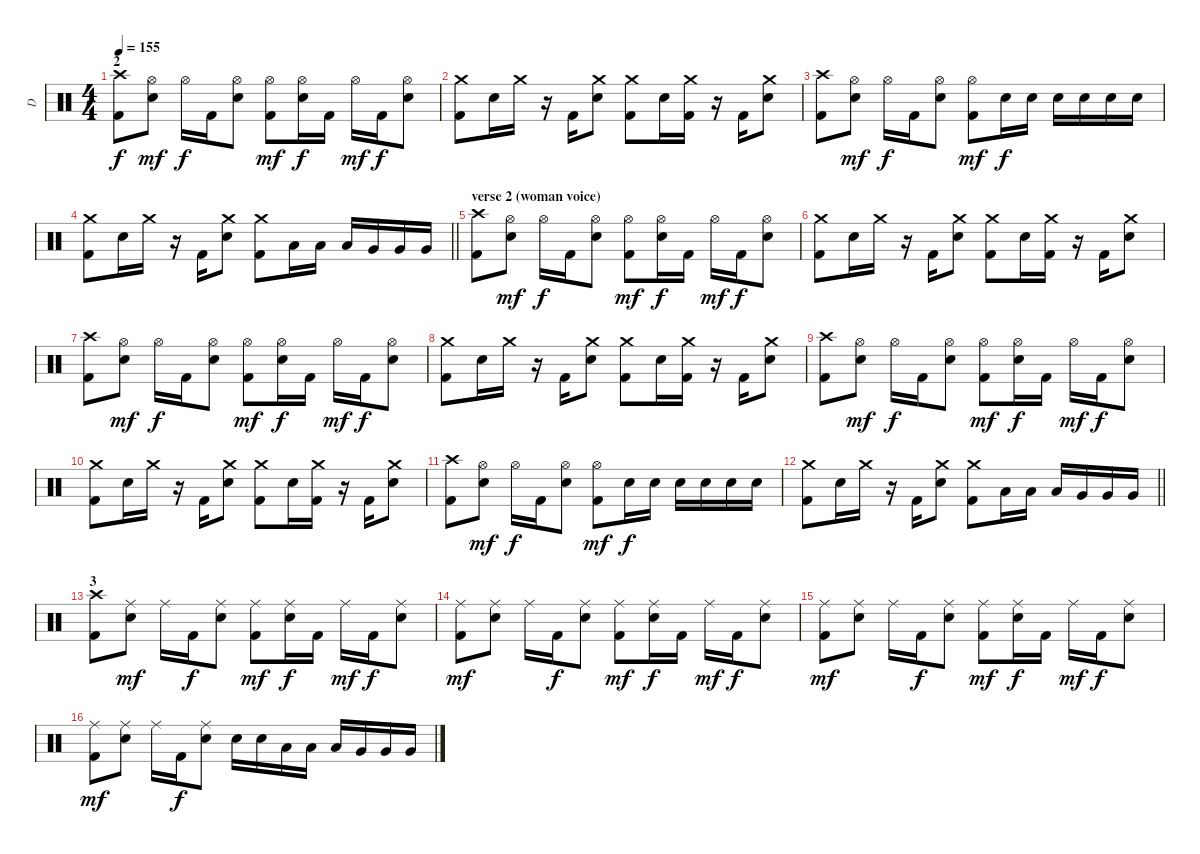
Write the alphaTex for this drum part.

\track ("D" "D") {instrument percussion}
\staff {score}
\articulation defaults
\ts (4 4)
\section ("" "2")
\tempo 155
\clef neutral
\ks c
("Kick (hit) 2" "Crash high (hit)").8{dy f} ("Electric Snare (hit)" "Hi-Hat (open)").8{dy mf} "Hi-Hat (open)".16{dy f} "Kick (hit) 2".16 ("Electric Snare (hit)" "Hi-Hat (open)").8 ("Kick (hit) 2" "Hi-Hat (open)").8{dy mf} ("Electric Snare (hit)" "Hi-Hat (open)").16{dy f} "Kick (hit) 2".16 "Hi-Hat (open)".16{dy mf} "Kick (hit) 2".16{dy f} ("Electric Snare (hit)" "Hi-Hat (open)").8 |
("Kick (hit) 2" "Crash medium (hit)").8 "Electric Snare (hit)".16 "Crash medium (hit)".16 r.16 "Kick (hit) 2".16 ("Electric Snare (hit)" "Crash medium (hit)").8 ("Kick (hit) 2" "Crash medium (hit)").8 "Electric Snare (hit)".16 ("Kick (hit) 2" "Crash medium (hit)").16 r.16 "Kick (hit) 2".16 ("Electric Snare (hit)" "Crash medium (hit)").8 |
("Kick (hit) 2" "Crash high (hit)").8 ("Electric Snare (hit)" "Hi-Hat (open)").8{dy mf} "Hi-Hat (open)".16{dy f} "Kick (hit) 2".16 ("Electric Snare (hit)" "Hi-Hat (open)").8 ("Kick (hit) 2" "Hi-Hat (open)").8{dy mf} "Electric Snare (hit)".16{dy f} "Electric Snare (hit)".16 "Electric Snare (hit)".16 "Electric Snare (hit)".16 "Electric Snare (hit)".16 "Electric Snare (hit)".16 |
\barLineRight lightlight
("Kick (hit) 2" "Crash medium (hit)").8 "Electric Snare (hit)".16 "Crash medium (hit)".16 r.16 "Kick (hit) 2".16 ("Electric Snare (hit)" "Crash medium (hit)").8 ("Kick (hit) 2" "Crash medium (hit)").8 "Low Tom (hit)".16 "Low Tom (hit)".16 "Low Tom (hit)".16 "Very Low Tom (hit)".16 "Very Low Tom (hit)".16 "Very Low Tom (hit)".16 |
\section ("" "verse 2 (woman voice)")
("Kick (hit) 2" "Crash high (hit)").8 ("Electric Snare (hit)" "Hi-Hat (open)").8{dy mf} "Hi-Hat (open)".16{dy f} "Kick (hit) 2".16 ("Electric Snare (hit)" "Hi-Hat (open)").8 ("Kick (hit) 2" "Hi-Hat (open)").8{dy mf} ("Electric Snare (hit)" "Hi-Hat (open)").16{dy f} "Kick (hit) 2".16 "Hi-Hat (open)".16{dy mf} "Kick (hit) 2".16{dy f} ("Electric Snare (hit)" "Hi-Hat (open)").8 |
("Kick (hit) 2" "Crash medium (hit)").8 "Electric Snare (hit)".16 "Crash medium (hit)".16 r.16 "Kick (hit) 2".16 ("Electric Snare (hit)" "Crash medium (hit)").8 ("Kick (hit) 2" "Crash medium (hit)").8 "Electric Snare (hit)".16 ("Kick (hit) 2" "Crash medium (hit)").16 r.16 "Kick (hit) 2".16 ("Electric Snare (hit)" "Crash medium (hit)").8 |
("Kick (hit) 2" "Crash high (hit)").8 ("Electric Snare (hit)" "Hi-Hat (open)").8{dy mf} "Hi-Hat (open)".16{dy f} "Kick (hit) 2".16 ("Electric Snare (hit)" "Hi-Hat (open)").8 ("Kick (hit) 2" "Hi-Hat (open)").8{dy mf} ("Electric Snare (hit)" "Hi-Hat (open)").16{dy f} "Kick (hit) 2".16 "Hi-Hat (open)".16{dy mf} "Kick (hit) 2".16{dy f} ("Electric Snare (hit)" "Hi-Hat (open)").8 |
("Kick (hit) 2" "Crash medium (hit)").8 "Electric Snare (hit)".16 "Crash medium (hit)".16 r.16 "Kick (hit) 2".16 ("Electric Snare (hit)" "Crash medium (hit)").8 ("Kick (hit) 2" "Crash medium (hit)").8 "Electric Snare (hit)".16 ("Kick (hit) 2" "Crash medium (hit)").16 r.16 "Kick (hit) 2".16 ("Electric Snare (hit)" "Crash medium (hit)").8 |
("Kick (hit) 2" "Crash high (hit)").8 ("Electric Snare (hit)" "Hi-Hat (open)").8{dy mf} "Hi-Hat (open)".16{dy f} "Kick (hit) 2".16 ("Electric Snare (hit)" "Hi-Hat (open)").8 ("Kick (hit) 2" "Hi-Hat (open)").8{dy mf} ("Electric Snare (hit)" "Hi-Hat (open)").16{dy f} "Kick (hit) 2".16 "Hi-Hat (open)".16{dy mf} "Kick (hit) 2".16{dy f} ("Electric Snare (hit)" "Hi-Hat (open)").8 |
("Kick (hit) 2" "Crash medium (hit)").8 "Electric Snare (hit)".16 "Crash medium (hit)".16 r.16 "Kick (hit) 2".16 ("Electric Snare (hit)" "Crash medium (hit)").8 ("Kick (hit) 2" "Crash medium (hit)").8 "Electric Snare (hit)".16 ("Kick (hit) 2" "Crash medium (hit)").16 r.16 "Kick (hit) 2".16 ("Electric Snare (hit)" "Crash medium (hit)").8 |
("Kick (hit) 2" "Crash high (hit)").8 ("Electric Snare (hit)" "Hi-Hat (open)").8{dy mf} "Hi-Hat (open)".16{dy f} "Kick (hit) 2".16 ("Electric Snare (hit)" "Hi-Hat (open)").8 ("Kick (hit) 2" "Hi-Hat (open)").8{dy mf} "Electric Snare (hit)".16{dy f} "Electric Snare (hit)".16 "Electric Snare (hit)".16 "Electric Snare (hit)".16 "Electric Snare (hit)".16 "Electric Snare (hit)".16 |
\barLineRight lightlight
("Kick (hit) 2" "Crash medium (hit)").8 "Electric Snare (hit)".16 "Crash medium (hit)".16 r.16 "Kick (hit) 2".16 ("Electric Snare (hit)" "Crash medium (hit)").8 ("Kick (hit) 2" "Crash medium (hit)").8 "Low Tom (hit)".16 "Low Tom (hit)".16 "Low Tom (hit)".16 "Very Low Tom (hit)".16 "Very Low Tom (hit)".16 "Very Low Tom (hit)".16 |
\section ("" "3")
("Kick (hit) 2" "Crash high (hit)").8 ("Electric Snare (hit)" "Ride (middle)").8{dy mf} "Ride (middle)".16 "Kick (hit) 2".16{dy f} ("Electric Snare (hit)" "Ride (middle)").8 ("Kick (hit) 2" "Ride (middle)").8{dy mf} ("Electric Snare (hit)" "Ride (middle)").16{dy f} "Kick (hit) 2".16 "Ride (middle)".16{dy mf} "Kick (hit) 2".16{dy f} ("Electric Snare (hit)" "Ride (middle)").8 |
("Kick (hit) 2" "Ride (middle)").8{dy mf} ("Electric Snare (hit)" "Ride (middle)").8 "Ride (middle)".16 "Kick (hit) 2".16{dy f} ("Electric Snare (hit)" "Ride (middle)").8 ("Kick (hit) 2" "Ride (middle)").8{dy mf} ("Electric Snare (hit)" "Ride (middle)").16{dy f} "Kick (hit) 2".16 "Ride (middle)".16{dy mf} "Kick (hit) 2".16{dy f} ("Electric Snare (hit)" "Ride (middle)").8 |
("Kick (hit) 2" "Ride (middle)").8{dy mf} ("Electric Snare (hit)" "Ride (middle)").8 "Ride (middle)".16 "Kick (hit) 2".16{dy f} ("Electric Snare (hit)" "Ride (middle)").8 ("Kick (hit) 2" "Ride (middle)").8{dy mf} ("Electric Snare (hit)" "Ride (middle)").16{dy f} "Kick (hit) 2".16 "Ride (middle)".16{dy mf} "Kick (hit) 2".16{dy f} ("Electric Snare (hit)" "Ride (middle)").8 |
("Kick (hit) 2" "Ride (middle)").8{dy mf} ("Electric Snare (hit)" "Ride (middle)").8 "Ride (middle)".16 "Kick (hit) 2".16{dy f} ("Electric Snare (hit)" "Ride (middle)").8 "Electric Snare (hit)".16 "Electric Snare (hit)".16 "Low Tom (hit)".16 "Low Tom (hit)".16 "Low Tom (hit)".16 "Very Low Tom (hit)".16 "Very Low Tom (hit)".16 "Very Low Tom (hit)".16
